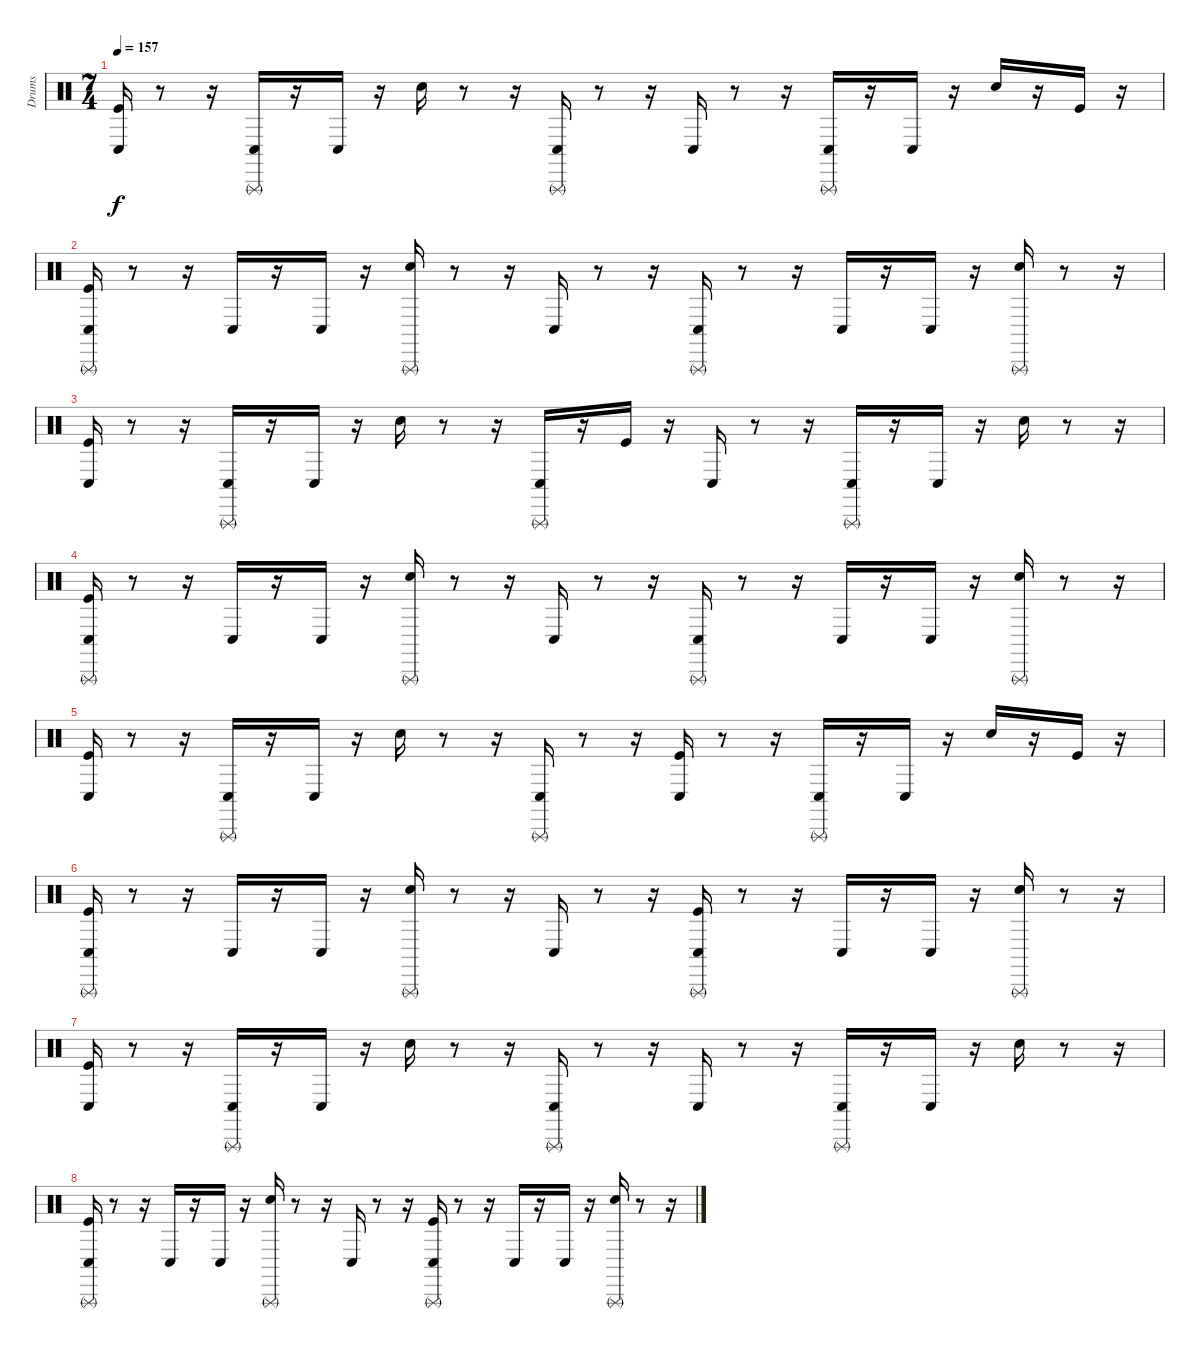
\track ("Drums" "Drums") {instrument percussion}
\staff {score}
\articulation defaults
\ts (7 4)
\tempo 157
\clef neutral
\ks c
("Kick (hit)" "Conga low (hit)").16{dy f} r.8 r.16 ("Conga low (hit)" "Triangle (rnute)").16 r.16 "Conga low (hit)".16 r.16 "Snare (hit) 2".16 r.8 r.16 ("Conga low (hit)" "Triangle (rnute)").16 r.8 r.16 "Conga low (hit)".16 r.8 r.16 ("Triangle (rnute)" "Conga low (hit)").16 r.16 "Conga low (hit)".16 r.16 "Snare (hit) 2".16 r.16 "Kick (hit)".16 r.16 |
("Kick (hit)" "Triangle (rnute)" "Conga low (hit)").16 r.8 r.16 "Conga low (hit)".16 r.16 "Conga low (hit)".16 r.16 ("Snare (hit) 2" "Triangle (rnute)").16 r.8 r.16 "Conga low (hit)".16 r.8 r.16 ("Conga low (hit)" "Triangle (rnute)").16 r.8 r.16 "Conga low (hit)".16 r.16 "Conga low (hit)".16 r.16 ("Snare (hit) 2" "Triangle (rnute)").16 r.8 r.16 |
("Kick (hit)" "Conga low (hit)").16 r.8 r.16 ("Triangle (rnute)" "Conga low (hit)").16 r.16 "Conga low (hit)".16 r.16 "Snare (hit) 2".16 r.8 r.16 ("Triangle (rnute)" "Conga low (hit)").16 r.16 "Kick (hit)".16 r.16 "Conga low (hit)".16 r.8 r.16 ("Triangle (rnute)" "Conga low (hit)").16 r.16 "Conga low (hit)".16 r.16 "Snare (hit) 2".16 r.8 r.16 |
("Conga low (hit)" "Triangle (rnute)" "Kick (hit)").16 r.8 r.16 "Conga low (hit)".16 r.16 "Conga low (hit)".16 r.16 ("Triangle (rnute)" "Snare (hit) 2").16 r.8 r.16 "Conga low (hit)".16 r.8 r.16 ("Triangle (rnute)" "Conga low (hit)").16 r.8 r.16 "Conga low (hit)".16 r.16 "Conga low (hit)".16 r.16 ("Snare (hit) 2" "Triangle (rnute)").16 r.8 r.16 |
("Conga low (hit)" "Kick (hit)").16 r.8 r.16 ("Conga low (hit)" "Triangle (rnute)").16 r.16 "Conga low (hit)".16 r.16 "Snare (hit) 2".16 r.8 r.16 ("Triangle (rnute)" "Conga low (hit)").16 r.8 r.16 ("Kick (hit)" "Conga low (hit)").16 r.8 r.16 ("Triangle (rnute)" "Conga low (hit)").16 r.16 "Conga low (hit)".16 r.16 "Snare (hit) 2".16 r.16 "Kick (hit)".16 r.16 |
("Conga low (hit)" "Kick (hit)" "Triangle (rnute)").16 r.8 r.16 "Conga low (hit)".16 r.16 "Conga low (hit)".16 r.16 ("Triangle (rnute)" "Snare (hit) 2").16 r.8 r.16 "Conga low (hit)".16 r.8 r.16 ("Conga low (hit)" "Kick (hit)" "Triangle (rnute)").16 r.8 r.16 "Conga low (hit)".16 r.16 "Conga low (hit)".16 r.16 ("Triangle (rnute)" "Snare (hit) 2").16 r.8 r.16 |
("Kick (hit)" "Conga low (hit)").16 r.8 r.16 ("Conga low (hit)" "Triangle (rnute)").16 r.16 "Conga low (hit)".16 r.16 "Snare (hit) 2".16 r.8 r.16 ("Triangle (rnute)" "Conga low (hit)").16 r.8 r.16 "Conga low (hit)".16 r.8 r.16 ("Triangle (rnute)" "Conga low (hit)").16 r.16 "Conga low (hit)".16 r.16 "Snare (hit) 2".16 r.8 r.16 |
("Triangle (rnute)" "Kick (hit)" "Conga low (hit)").16 r.8 r.16 "Conga low (hit)".16 r.16 "Conga low (hit)".16 r.16 ("Triangle (rnute)" "Snare (hit) 2").16 r.8 r.16 "Conga low (hit)".16 r.8 r.16 ("Kick (hit)" "Triangle (rnute)" "Conga low (hit)").16 r.8 r.16 "Conga low (hit)".16 r.16 "Conga low (hit)".16 r.16 ("Snare (hit) 2" "Triangle (rnute)").16 r.8 r.16
